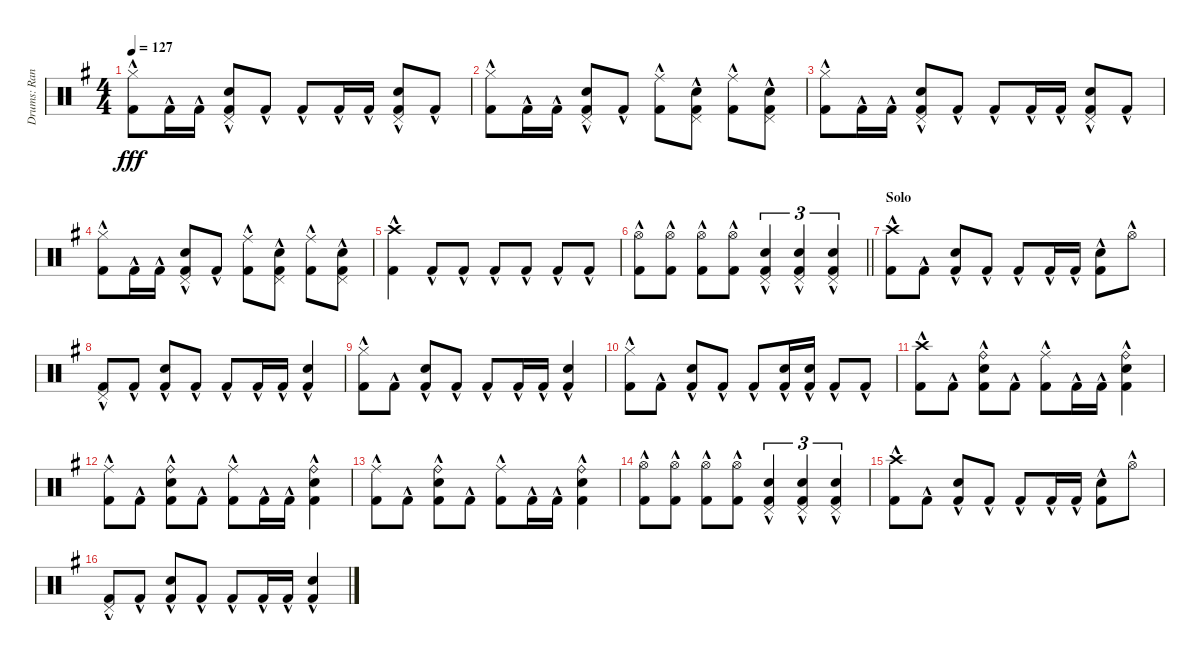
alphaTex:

\track ("Drums: Randy" "Drums: Ran") {instrument percussion}
\staff {score}
\articulation defaults
\ts (4 4)
\tempo 127
\clef neutral
\ks g
("Hi-Hat (closed)"{hac} "Kick (hit) 2"{hac}).8{dy fff} "Kick (hit) 2"{hac}.16 "Kick (hit) 2"{hac}.16 ("Pedal Hi-Hat (hit)"{hac} "Snare (hit) 2"{hac} "Kick (hit) 2"{hac}).8 "Kick (hit) 2"{hac}.8 "Kick (hit) 2"{hac}.8 "Kick (hit) 2"{hac}.16 "Kick (hit) 2"{hac}.16 ("Pedal Hi-Hat (hit)"{hac} "Snare (hit) 2"{hac} "Kick (hit) 2"{hac}).8 "Kick (hit) 2"{hac}.8 |
("Hi-Hat (closed)"{hac} "Kick (hit) 2"{hac}).8 "Kick (hit) 2"{hac}.16 "Kick (hit) 2"{hac}.16 ("Pedal Hi-Hat (hit)"{hac} "Snare (hit) 2"{hac} "Kick (hit) 2"{hac}).8 "Kick (hit) 2"{hac}.8 ("Ride (middle)"{hac} "Kick (hit) 2"{hac}).8 ("Pedal Hi-Hat (hit)"{hac} "Snare (hit) 2"{hac} "Kick (hit) 2"{hac}).8 ("Ride (middle)"{hac} "Kick (hit) 2"{hac}).8 ("Pedal Hi-Hat (hit)"{hac} "Snare (hit) 2"{hac} "Kick (hit) 2"{hac}).8 |
("Hi-Hat (closed)"{hac} "Kick (hit) 2"{hac}).8 "Kick (hit) 2"{hac}.16 "Kick (hit) 2"{hac}.16 ("Pedal Hi-Hat (hit)"{hac} "Snare (hit) 2"{hac} "Kick (hit) 2"{hac}).8 "Kick (hit) 2"{hac}.8 "Kick (hit) 2"{hac}.8 "Kick (hit) 2"{hac}.16 "Kick (hit) 2"{hac}.16 ("Pedal Hi-Hat (hit)"{hac} "Snare (hit) 2"{hac} "Kick (hit) 2"{hac}).8 "Kick (hit) 2"{hac}.8 |
("Hi-Hat (closed)"{hac} "Kick (hit) 2"{hac}).8 "Kick (hit) 2"{hac}.16 "Kick (hit) 2"{hac}.16 ("Pedal Hi-Hat (hit)"{hac} "Snare (hit) 2"{hac} "Kick (hit) 2"{hac}).8 "Kick (hit) 2"{hac}.8 ("Ride (middle)"{hac} "Kick (hit) 2"{hac}).8 ("Pedal Hi-Hat (hit)"{hac} "Snare (hit) 2"{hac} "Kick (hit) 2"{hac}).8 ("Ride (middle)"{hac} "Kick (hit) 2"{hac}).8 ("Pedal Hi-Hat (hit)"{hac} "Snare (hit) 2"{hac} "Kick (hit) 2"{hac}).8 |
("Crash high (hit)"{hac} "Kick (hit) 2"{hac}).4 "Kick (hit) 2"{hac}.8 "Kick (hit) 2"{hac}.8 "Kick (hit) 2"{hac}.8 "Kick (hit) 2"{hac}.8 "Kick (hit) 2"{hac}.8 "Kick (hit) 2"{hac}.8 |
\barLineRight lightlight
("Hi-Hat (open)"{hac} "Kick (hit) 2"{hac}).8 ("Hi-Hat (open)"{hac} "Kick (hit) 2"{hac}).8 ("Hi-Hat (open)"{hac} "Kick (hit) 2"{hac}).8 ("Hi-Hat (open)"{hac} "Kick (hit) 2"{hac}).8 ("Pedal Hi-Hat (hit)"{hac} "Snare (hit) 2"{hac} "Kick (hit) 2"{hac}).4{tu (3 2)} ("Pedal Hi-Hat (hit)"{hac} "Snare (hit) 2"{hac} "Kick (hit) 2"{hac}).4{tu (3 2)} ("Pedal Hi-Hat (hit)"{hac} "Snare (hit) 2"{hac} "Kick (hit) 2"{hac}).4{tu (3 2)} |
\section ("" "Solo")
("Crash high (hit)"{hac} "Kick (hit) 2"{hac}).8 "Kick (hit) 2"{hac}.8 ("Snare (hit) 2"{hac} "Kick (hit) 2"{hac}).8 "Kick (hit) 2"{hac}.8 "Kick (hit) 2"{hac}.8 "Kick (hit) 2"{hac}.16 "Kick (hit) 2"{hac}.16 ("Snare (hit) 2"{hac} "Kick (hit) 2"{hac}).8 "Hi-Hat (open)"{hac}.8 |
("Pedal Hi-Hat (hit)"{hac} "Kick (hit) 2"{hac}).8 "Kick (hit) 2"{hac}.8 ("Snare (hit) 2"{hac} "Kick (hit) 2"{hac}).8 "Kick (hit) 2"{hac}.8 "Kick (hit) 2"{hac}.8 "Kick (hit) 2"{hac}.16 "Kick (hit) 2"{hac}.16 ("Snare (hit) 2"{hac} "Kick (hit) 2"{hac}).4 |
("Hi-Hat (closed)"{hac} "Kick (hit) 2"{hac}).8 "Kick (hit) 2"{hac}.8 ("Snare (hit) 2"{hac} "Kick (hit) 2"{hac}).8 "Kick (hit) 2"{hac}.8 "Kick (hit) 2"{hac}.8 "Kick (hit) 2"{hac}.16 "Kick (hit) 2"{hac}.16 ("Snare (hit) 2"{hac} "Kick (hit) 2"{hac}).4 |
("Hi-Hat (closed)"{hac} "Kick (hit) 2"{hac}).8 "Kick (hit) 2"{hac}.8 ("Snare (hit) 2"{hac} "Kick (hit) 2"{hac}).8 "Kick (hit) 2"{hac}.8 "Kick (hit) 2"{hac}.8 ("Snare (hit) 2"{hac} "Kick (hit) 2"{hac}).16 ("Snare (hit) 2"{hac} "Kick (hit) 2"{hac}).16 "Kick (hit) 2"{hac}.8 "Kick (hit) 2"{hac}.8 |
("Crash high (hit)"{hac} "Kick (hit) 2"{hac}).8 "Kick (hit) 2"{hac}.8 ("Ride (bell)"{hac} "Snare (hit) 2"{hac} "Kick (hit) 2"{hac}).8 "Kick (hit) 2"{hac}.8 ("Ride (middle)"{hac} "Kick (hit) 2"{hac}).8 "Kick (hit) 2"{hac}.16 "Kick (hit) 2"{hac}.16 ("Ride (bell)"{hac} "Snare (hit) 2"{hac} "Kick (hit) 2"{hac}).4 |
("Ride (middle)"{hac} "Kick (hit) 2"{hac}).8 "Kick (hit) 2"{hac}.8 ("Ride (bell)"{hac} "Snare (hit) 2"{hac} "Kick (hit) 2"{hac}).8 "Kick (hit) 2"{hac}.8 ("Ride (middle)"{hac} "Kick (hit) 2"{hac}).8 "Kick (hit) 2"{hac}.16 "Kick (hit) 2"{hac}.16 ("Ride (bell)"{hac} "Snare (hit) 2"{hac} "Kick (hit) 2"{hac}).4 |
("Ride (middle)"{hac} "Kick (hit) 2"{hac}).8 "Kick (hit) 2"{hac}.8 ("Ride (bell)"{hac} "Snare (hit) 2"{hac} "Kick (hit) 2"{hac}).8 "Kick (hit) 2"{hac}.8 ("Ride (middle)"{hac} "Kick (hit) 2"{hac}).8 "Kick (hit) 2"{hac}.16 "Kick (hit) 2"{hac}.16 ("Ride (bell)"{hac} "Snare (hit) 2"{hac} "Kick (hit) 2"{hac}).4 |
("Hi-Hat (open)"{hac} "Kick (hit) 2"{hac}).8 ("Hi-Hat (open)"{hac} "Kick (hit) 2"{hac}).8 ("Hi-Hat (open)"{hac} "Kick (hit) 2"{hac}).8 ("Hi-Hat (open)"{hac} "Kick (hit) 2"{hac}).8 ("Pedal Hi-Hat (hit)"{hac} "Snare (hit) 2"{hac} "Kick (hit) 2"{hac}).4{tu (3 2)} ("Pedal Hi-Hat (hit)"{hac} "Snare (hit) 2"{hac} "Kick (hit) 2"{hac}).4{tu (3 2)} ("Pedal Hi-Hat (hit)"{hac} "Snare (hit) 2"{hac} "Kick (hit) 2"{hac}).4{tu (3 2)} |
("Crash high (hit)"{hac} "Kick (hit) 2"{hac}).8 "Kick (hit) 2"{hac}.8 ("Snare (hit) 2"{hac} "Kick (hit) 2"{hac}).8 "Kick (hit) 2"{hac}.8 "Kick (hit) 2"{hac}.8 "Kick (hit) 2"{hac}.16 "Kick (hit) 2"{hac}.16 ("Snare (hit) 2"{hac} "Kick (hit) 2"{hac}).8 "Hi-Hat (open)"{hac}.8 |
("Pedal Hi-Hat (hit)"{hac} "Kick (hit) 2"{hac}).8 "Kick (hit) 2"{hac}.8 ("Snare (hit) 2"{hac} "Kick (hit) 2"{hac}).8 "Kick (hit) 2"{hac}.8 "Kick (hit) 2"{hac}.8 "Kick (hit) 2"{hac}.16 "Kick (hit) 2"{hac}.16 ("Snare (hit) 2"{hac} "Kick (hit) 2"{hac}).4
